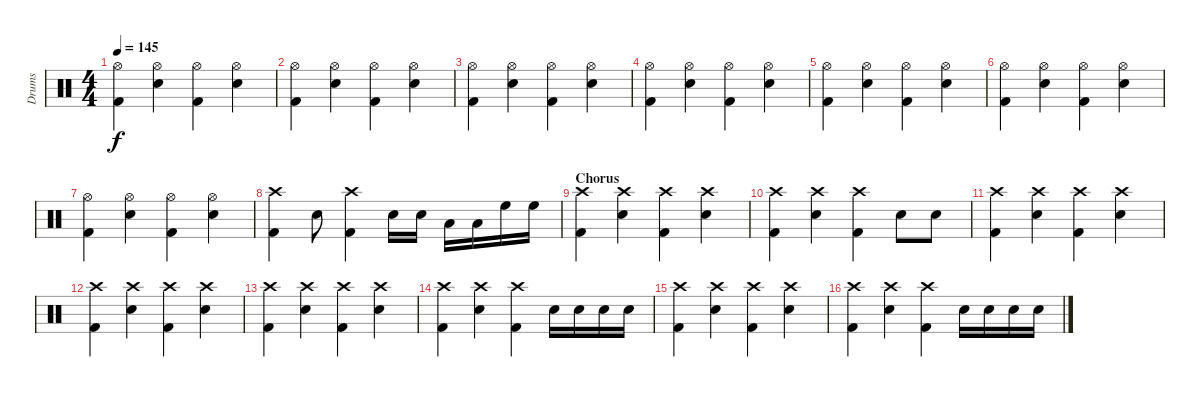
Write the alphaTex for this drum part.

\track ("Drums" "Drums") {instrument percussion}
\staff {score}
\articulation defaults
\ts (4 4)
\tempo 145
\clef neutral
\ks c
("Hi-Hat (open)" "Kick (hit) 2").4{dy f} ("Hi-Hat (open)" "Electric Snare (hit)").4 ("Hi-Hat (open)" "Kick (hit) 2").4 ("Hi-Hat (open)" "Electric Snare (hit)").4 |
("Hi-Hat (open)" "Kick (hit) 2").4 ("Hi-Hat (open)" "Electric Snare (hit)").4 ("Hi-Hat (open)" "Kick (hit) 2").4 ("Hi-Hat (open)" "Electric Snare (hit)").4 |
("Hi-Hat (open)" "Kick (hit) 2").4 ("Hi-Hat (open)" "Electric Snare (hit)").4 ("Hi-Hat (open)" "Kick (hit) 2").4 ("Hi-Hat (open)" "Electric Snare (hit)").4 |
("Hi-Hat (open)" "Kick (hit) 2").4 ("Hi-Hat (open)" "Electric Snare (hit)").4 ("Hi-Hat (open)" "Kick (hit) 2").4 ("Hi-Hat (open)" "Electric Snare (hit)").4 |
("Hi-Hat (open)" "Kick (hit) 2").4 ("Hi-Hat (open)" "Electric Snare (hit)").4 ("Hi-Hat (open)" "Kick (hit) 2").4 ("Hi-Hat (open)" "Electric Snare (hit)").4 |
("Hi-Hat (open)" "Kick (hit) 2").4 ("Hi-Hat (open)" "Electric Snare (hit)").4 ("Hi-Hat (open)" "Kick (hit) 2").4 ("Hi-Hat (open)" "Electric Snare (hit)").4 |
("Hi-Hat (open)" "Kick (hit) 2").4 ("Hi-Hat (open)" "Electric Snare (hit)").4 ("Hi-Hat (open)" "Kick (hit) 2").4 ("Hi-Hat (open)" "Electric Snare (hit)").4 |
("Crash high (hit)" "Kick (hit) 2").4 "Electric Snare (hit)".8 ("Crash high (hit)" "Kick (hit) 2").4 "Electric Snare (hit)".16 "Electric Snare (hit)".16 "Low Tom (hit)".16 "Low Tom (hit)".16 "High Floor Tom (hit)".16 "High Floor Tom (hit)".16 |
\section ("" "Chorus")
("Crash high (hit)" "Kick (hit) 2").4 ("Crash high (hit)" "Electric Snare (hit)").4 ("Crash high (hit)" "Kick (hit) 2").4 ("Crash high (hit)" "Electric Snare (hit)").4 |
("Crash high (hit)" "Kick (hit) 2").4 ("Crash high (hit)" "Electric Snare (hit)").4 ("Crash high (hit)" "Kick (hit) 2").4 "Electric Snare (hit)".8 "Electric Snare (hit)".8 |
("Crash high (hit)" "Kick (hit) 2").4 ("Crash high (hit)" "Electric Snare (hit)").4 ("Crash high (hit)" "Kick (hit) 2").4 ("Crash high (hit)" "Electric Snare (hit)").4 |
("Crash high (hit)" "Kick (hit) 2").4 ("Crash high (hit)" "Electric Snare (hit)").4 ("Crash high (hit)" "Kick (hit) 2").4 ("Crash high (hit)" "Electric Snare (hit)").4 |
("Crash high (hit)" "Kick (hit) 2").4 ("Crash high (hit)" "Electric Snare (hit)").4 ("Crash high (hit)" "Kick (hit) 2").4 ("Crash high (hit)" "Electric Snare (hit)").4 |
("Crash high (hit)" "Kick (hit) 2").4 ("Crash high (hit)" "Electric Snare (hit)").4 ("Crash high (hit)" "Kick (hit) 2").4 "Electric Snare (hit)".16 "Electric Snare (hit)".16 "Electric Snare (hit)".16 "Electric Snare (hit)".16 |
("Crash high (hit)" "Kick (hit) 2").4 ("Crash high (hit)" "Electric Snare (hit)").4 ("Crash high (hit)" "Kick (hit) 2").4 ("Crash high (hit)" "Electric Snare (hit)").4 |
("Crash high (hit)" "Kick (hit) 2").4 ("Crash high (hit)" "Electric Snare (hit)").4 ("Crash high (hit)" "Kick (hit) 2").4 "Electric Snare (hit)".16 "Electric Snare (hit)".16 "Electric Snare (hit)".16 "Electric Snare (hit)".16
